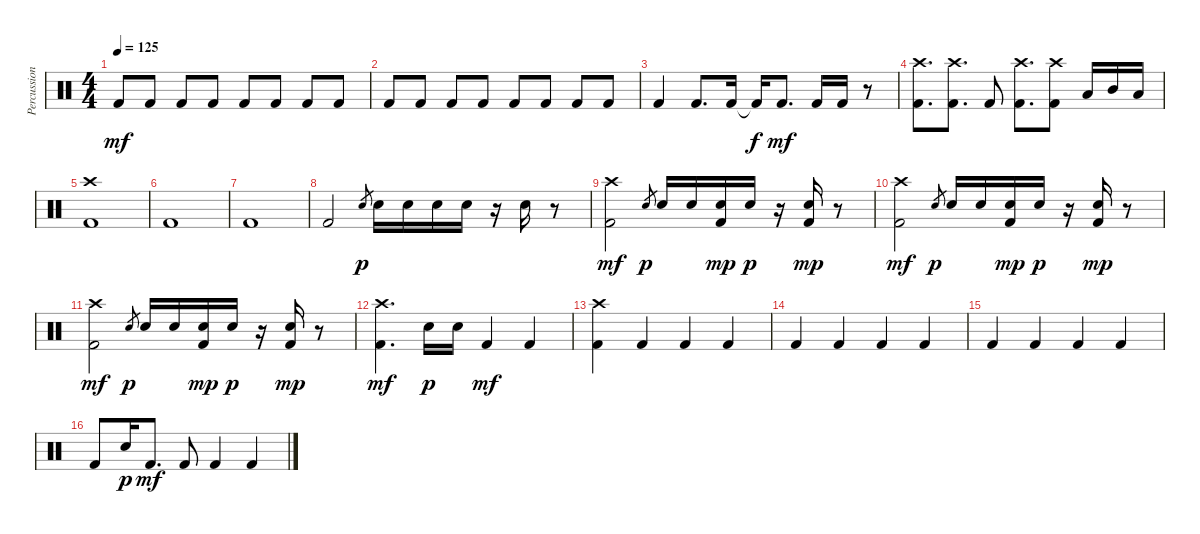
\track ("Percussion" "Percussion") {instrument percussion}
\staff {score}
\articulation defaults
\ts (4 4)
\tempo 125
\clef neutral
\ks c "Kick (hit) 2".8{dy mf} "Kick (hit) 2".8 "Kick (hit) 2".8 "Kick (hit) 2".8 "Kick (hit) 2".8 "Kick (hit) 2".8 "Kick (hit) 2".8 "Kick (hit) 2".8
|
"Kick (hit) 2".8 "Kick (hit) 2".8 "Kick (hit) 2".8 "Kick (hit) 2".8 "Kick (hit) 2".8 "Kick (hit) 2".8 "Kick (hit) 2".8 "Kick (hit) 2".8 |
"Kick (hit) 2".4 "Kick (hit) 2".8{d} "Kick (hit) 2".16 "Kick (hit) 2"{t}.16{dy f} "Kick (hit) 2".8{d dy mf} "Kick (hit) 2".16 "Kick (hit) 2".16 r.8 |
("Crash high (hit)" "Kick (hit) 2").8{d} ("Crash high (hit)" "Kick (hit) 2").8{d} "Kick (hit) 2".8 ("Crash high (hit)" "Kick (hit) 2").8{d} ("Crash high (hit)" "Kick (hit) 2").8 "Low Tom (hit)".16 "Mid Tom (hit)".16 "Low Tom (hit)".16 |
("Crash high (hit)" "Kick (hit) 2").1 |
"Kick (hit) 2".1 |
"Kick (hit) 2".1 |
"Kick (hit) 2".2 "Electric Snare (hit)".8{gr dy p} "Electric Snare (hit)".16 "Electric Snare (hit)".16 "Electric Snare (hit)".16 "Electric Snare (hit)".16 r.16 "Electric Snare (hit)".16 r.8 |
("Crash high (hit)" "Kick (hit) 2").2{dy mf} "Electric Snare (hit)".8{gr dy p} "Electric Snare (hit)".16 "Electric Snare (hit)".16 ("Electric Snare (hit)" "Kick (hit) 2").16{dy mp} "Electric Snare (hit)".16{dy p} r.16 ("Electric Snare (hit)" "Kick (hit) 2").16{dy mp} r.8 |
("Crash high (hit)" "Kick (hit) 2").2{dy mf} "Electric Snare (hit)".8{gr dy p} "Electric Snare (hit)".16 "Electric Snare (hit)".16 ("Electric Snare (hit)" "Kick (hit) 2").16{dy mp} "Electric Snare (hit)".16{dy p} r.16 ("Electric Snare (hit)" "Kick (hit) 2").16{dy mp} r.8 |
("Crash high (hit)" "Kick (hit) 2").2{dy mf} "Electric Snare (hit)".8{gr dy p} "Electric Snare (hit)".16 "Electric Snare (hit)".16 ("Electric Snare (hit)" "Kick (hit) 2").16{dy mp} "Electric Snare (hit)".16{dy p} r.16 ("Electric Snare (hit)" "Kick (hit) 2").16{dy mp} r.8 |
("Crash high (hit)" "Kick (hit) 2").4{d dy mf} "Electric Snare (hit)".16{dy p} "Electric Snare (hit)".16 "Kick (hit) 2".4{dy mf} "Kick (hit) 2".4 |
("Crash high (hit)" "Kick (hit) 2").4 "Kick (hit) 2".4 "Kick (hit) 2".4 "Kick (hit) 2".4 |
"Kick (hit) 2".4 "Kick (hit) 2".4 "Kick (hit) 2".4 "Kick (hit) 2".4 |
"Kick (hit) 2".4 "Kick (hit) 2".4 "Kick (hit) 2".4 "Kick (hit) 2".4 |
"Kick (hit) 2".8 "Electric Snare (hit)".16{dy p} "Kick (hit) 2".8{d dy mf} "Kick (hit) 2".8 "Kick (hit) 2".4 "Kick (hit) 2".4
